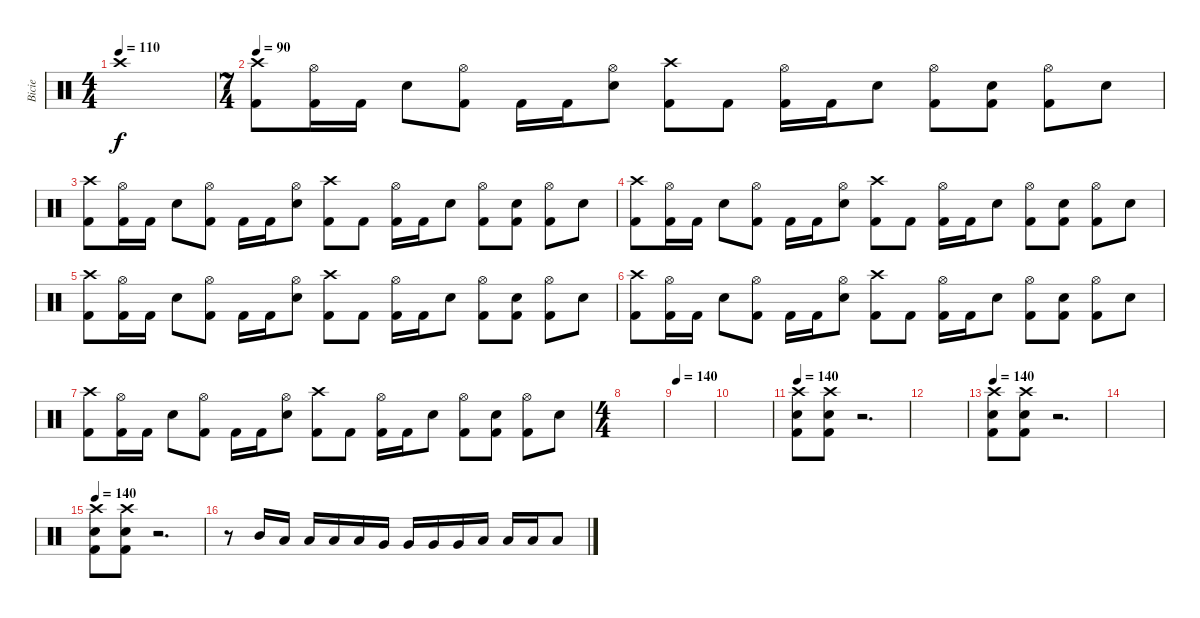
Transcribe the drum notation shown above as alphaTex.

\track ("Bicie" "Bicie") {instrument percussion}
\staff {score}
\articulation defaults
\ts (4 4)
\tempo 110
\clef neutral
\ks c "Crash high (hit)"{t}.1{dy f}
|
\ts (7 4)
\tempo 90
("Crash high (hit)" "Kick (hit) 2").8 ("Hi-Hat (open)" "Kick (hit) 2").16 "Kick (hit) 2".16 "Electric Snare (hit)".8 ("Hi-Hat (open)" "Kick (hit) 2").8 "Kick (hit) 2".16 "Kick (hit) 2".16 ("Hi-Hat (open)" "Electric Snare (hit)").8 ("Crash high (hit)" "Kick (hit) 2").8 "Kick (hit) 2".8 ("Hi-Hat (open)" "Kick (hit) 2").16 "Kick (hit) 2".16 "Electric Snare (hit)".8 ("Hi-Hat (open)" "Kick (hit) 2").8 ("Electric Snare (hit)" "Kick (hit) 2").8 ("Hi-Hat (open)" "Kick (hit) 2").8 "Electric Snare (hit)".8 |
("Crash high (hit)" "Kick (hit) 2").8 ("Hi-Hat (open)" "Kick (hit) 2").16 "Kick (hit) 2".16 "Electric Snare (hit)".8 ("Hi-Hat (open)" "Kick (hit) 2").8 "Kick (hit) 2".16 "Kick (hit) 2".16 ("Hi-Hat (open)" "Electric Snare (hit)").8 ("Crash high (hit)" "Kick (hit) 2").8 "Kick (hit) 2".8 ("Hi-Hat (open)" "Kick (hit) 2").16 "Kick (hit) 2".16 "Electric Snare (hit)".8 ("Hi-Hat (open)" "Kick (hit) 2").8 ("Electric Snare (hit)" "Kick (hit) 2").8 ("Hi-Hat (open)" "Kick (hit) 2").8 "Electric Snare (hit)".8 |
("Crash high (hit)" "Kick (hit) 2").8 ("Hi-Hat (open)" "Kick (hit) 2").16 "Kick (hit) 2".16 "Electric Snare (hit)".8 ("Hi-Hat (open)" "Kick (hit) 2").8 "Kick (hit) 2".16 "Kick (hit) 2".16 ("Hi-Hat (open)" "Electric Snare (hit)").8 ("Crash high (hit)" "Kick (hit) 2").8 "Kick (hit) 2".8 ("Hi-Hat (open)" "Kick (hit) 2").16 "Kick (hit) 2".16 "Electric Snare (hit)".8 ("Hi-Hat (open)" "Kick (hit) 2").8 ("Electric Snare (hit)" "Kick (hit) 2").8 ("Hi-Hat (open)" "Kick (hit) 2").8 "Electric Snare (hit)".8 |
("Crash high (hit)" "Kick (hit) 2").8 ("Hi-Hat (open)" "Kick (hit) 2").16 "Kick (hit) 2".16 "Electric Snare (hit)".8 ("Hi-Hat (open)" "Kick (hit) 2").8 "Kick (hit) 2".16 "Kick (hit) 2".16 ("Hi-Hat (open)" "Electric Snare (hit)").8 ("Crash high (hit)" "Kick (hit) 2").8 "Kick (hit) 2".8 ("Hi-Hat (open)" "Kick (hit) 2").16 "Kick (hit) 2".16 "Electric Snare (hit)".8 ("Hi-Hat (open)" "Kick (hit) 2").8 ("Electric Snare (hit)" "Kick (hit) 2").8 ("Hi-Hat (open)" "Kick (hit) 2").8 "Electric Snare (hit)".8 |
("Crash high (hit)" "Kick (hit) 2").8 ("Hi-Hat (open)" "Kick (hit) 2").16 "Kick (hit) 2".16 "Electric Snare (hit)".8 ("Hi-Hat (open)" "Kick (hit) 2").8 "Kick (hit) 2".16 "Kick (hit) 2".16 ("Hi-Hat (open)" "Electric Snare (hit)").8 ("Crash high (hit)" "Kick (hit) 2").8 "Kick (hit) 2".8 ("Hi-Hat (open)" "Kick (hit) 2").16 "Kick (hit) 2".16 "Electric Snare (hit)".8 ("Hi-Hat (open)" "Kick (hit) 2").8 ("Electric Snare (hit)" "Kick (hit) 2").8 ("Hi-Hat (open)" "Kick (hit) 2").8 "Electric Snare (hit)".8 |
("Crash high (hit)" "Kick (hit) 2").8 ("Hi-Hat (open)" "Kick (hit) 2").16 "Kick (hit) 2".16 "Electric Snare (hit)".8 ("Hi-Hat (open)" "Kick (hit) 2").8 "Kick (hit) 2".16 "Kick (hit) 2".16 ("Hi-Hat (open)" "Electric Snare (hit)").8 ("Crash high (hit)" "Kick (hit) 2").8 "Kick (hit) 2".8 ("Hi-Hat (open)" "Kick (hit) 2").16 "Kick (hit) 2".16 "Electric Snare (hit)".8 ("Hi-Hat (open)" "Kick (hit) 2").8 ("Electric Snare (hit)" "Kick (hit) 2").8 ("Hi-Hat (open)" "Kick (hit) 2").8 "Electric Snare (hit)".8 |
\ts (4 4)
|
\tempo 140
|
|
\tempo 140
("Crash high (hit)" "Electric Snare (hit)" "Kick (hit) 2").8 ("Crash high (hit)" "Electric Snare (hit)" "Kick (hit) 2").8{volume 13} r.2{d volume 0} |
|
\tempo 140
("Crash high (hit)" "Electric Snare (hit)" "Kick (hit) 2").8{volume 13} ("Crash high (hit)" "Electric Snare (hit)" "Kick (hit) 2").8 r.2{d volume 0} |
|
\tempo 140
("Crash high (hit)" "Electric Snare (hit)" "Kick (hit) 2").8{volume 13} ("Crash high (hit)" "Electric Snare (hit)" "Kick (hit) 2").8 r.2{d volume 0} |
r.8{volume 0} "Mid Tom (hit)".16{volume 13} "Low Tom (hit)".16 "Low Tom (hit)".16 "Low Tom (hit)".16 "Low Tom (hit)".16 "Very Low Tom (hit)".16 "Very Low Tom (hit)".16 "Very Low Tom (hit)".16 "Very Low Tom (hit)".16 "Low Floor Tom (hit)".16 "Low Floor Tom (hit)".16 "Low Floor Tom (hit)".16 "Low Floor Tom (hit)".8
